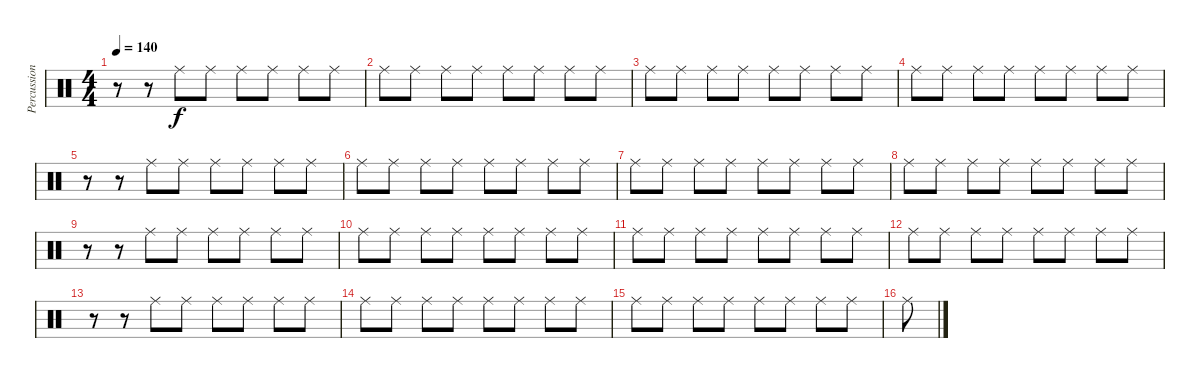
\track ("Percussion" "Percussion") {instrument percussion}
\staff {score}
\articulation defaults
\ts (4 4)
\tempo 140
\clef neutral
\ks c
r.8{dy f} r.8 "Ride (middle)".8 "Ride (middle)".8 "Ride (middle)".8 "Ride (middle)".8 "Ride (middle)".8 "Ride (middle)".8 |
"Ride (middle)".8 "Ride (middle)".8 "Ride (middle)".8 "Ride (middle)".8 "Ride (middle)".8 "Ride (middle)".8 "Ride (middle)".8 "Ride (middle)".8 |
"Ride (middle)".8 "Ride (middle)".8 "Ride (middle)".8 "Ride (middle)".8 "Ride (middle)".8 "Ride (middle)".8 "Ride (middle)".8 "Ride (middle)".8 |
"Ride (middle)".8 "Ride (middle)".8 "Ride (middle)".8 "Ride (middle)".8 "Ride (middle)".8 "Ride (middle)".8 "Ride (middle)".8 "Ride (middle)".8 |
r.8 r.8 "Ride (middle)".8 "Ride (middle)".8 "Ride (middle)".8 "Ride (middle)".8 "Ride (middle)".8 "Ride (middle)".8 |
"Ride (middle)".8 "Ride (middle)".8 "Ride (middle)".8 "Ride (middle)".8 "Ride (middle)".8 "Ride (middle)".8 "Ride (middle)".8 "Ride (middle)".8 |
"Ride (middle)".8 "Ride (middle)".8 "Ride (middle)".8 "Ride (middle)".8 "Ride (middle)".8 "Ride (middle)".8 "Ride (middle)".8 "Ride (middle)".8 |
"Ride (middle)".8 "Ride (middle)".8 "Ride (middle)".8 "Ride (middle)".8 "Ride (middle)".8 "Ride (middle)".8 "Ride (middle)".8 "Ride (middle)".8 |
r.8 r.8 "Ride (middle)".8 "Ride (middle)".8 "Ride (middle)".8 "Ride (middle)".8 "Ride (middle)".8 "Ride (middle)".8 |
"Ride (middle)".8 "Ride (middle)".8 "Ride (middle)".8 "Ride (middle)".8 "Ride (middle)".8 "Ride (middle)".8 "Ride (middle)".8 "Ride (middle)".8 |
"Ride (middle)".8 "Ride (middle)".8 "Ride (middle)".8 "Ride (middle)".8 "Ride (middle)".8 "Ride (middle)".8 "Ride (middle)".8 "Ride (middle)".8 |
"Ride (middle)".8 "Ride (middle)".8 "Ride (middle)".8 "Ride (middle)".8 "Ride (middle)".8 "Ride (middle)".8 "Ride (middle)".8 "Ride (middle)".8 |
r.8 r.8 "Ride (middle)".8 "Ride (middle)".8 "Ride (middle)".8 "Ride (middle)".8 "Ride (middle)".8 "Ride (middle)".8 |
"Ride (middle)".8 "Ride (middle)".8 "Ride (middle)".8 "Ride (middle)".8 "Ride (middle)".8 "Ride (middle)".8 "Ride (middle)".8 "Ride (middle)".8 |
"Ride (middle)".8 "Ride (middle)".8 "Ride (middle)".8 "Ride (middle)".8 "Ride (middle)".8 "Ride (middle)".8 "Ride (middle)".8 "Ride (middle)".8 |
"Ride (middle)".8
